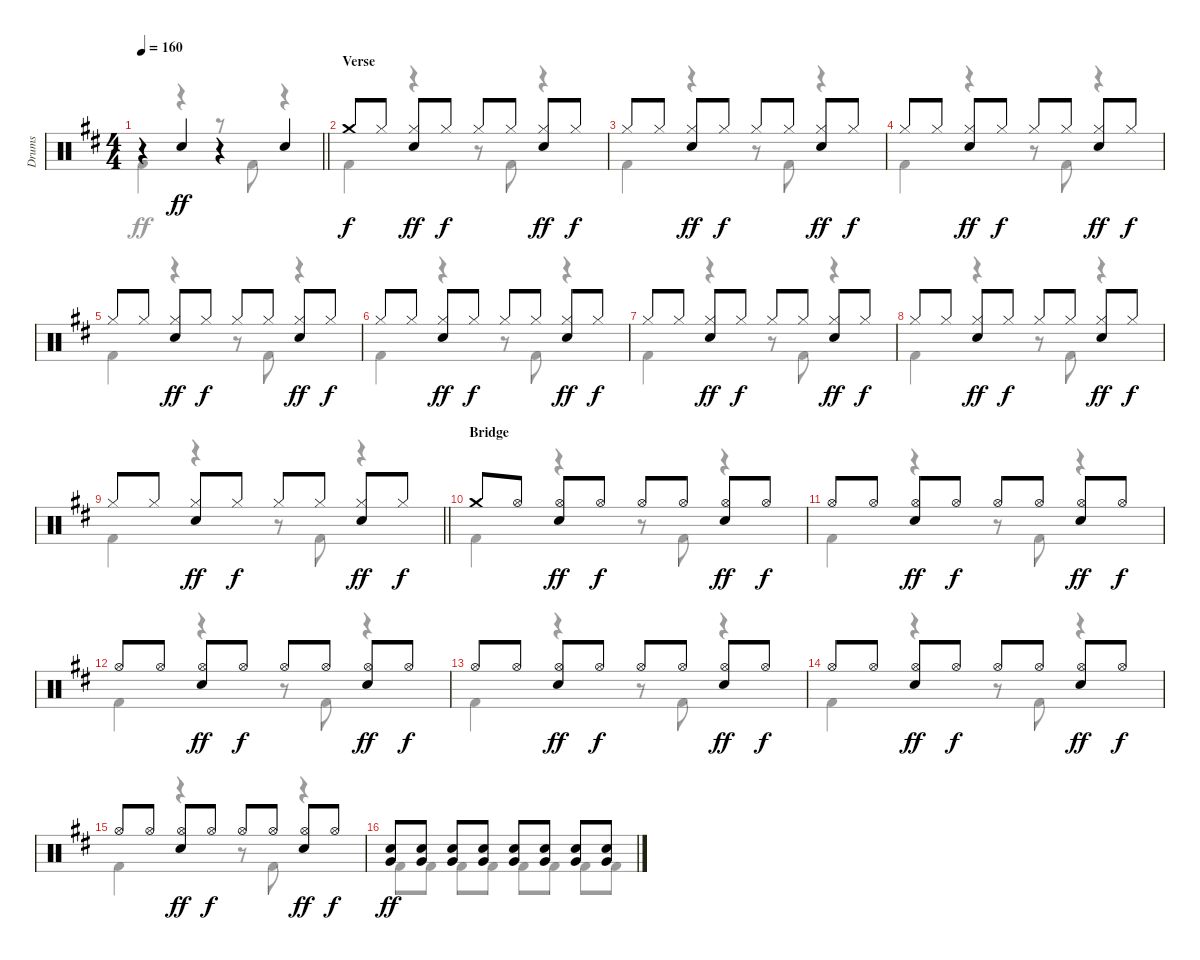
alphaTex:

\track ("Drums" "Drums") {instrument percussion}
\staff {score}
\articulation defaults
\voice
\ts (4 4)
\tempo 160
\clef neutral
\barLineRight lightlight
\ks bminor
r.4{dy ff} "Electric Snare (hit)".4 r.4 "Electric Snare (hit)".4 |
\section ("" "Verse")
"Crash medium (hit)".8{dy f} "Hi-Hat (closed)".8 ("Hi-Hat (closed)" "Electric Snare (hit)").8{dy ff} "Hi-Hat (closed)".8{dy f} "Hi-Hat (closed)".8 "Hi-Hat (closed)".8 ("Hi-Hat (closed)" "Electric Snare (hit)").8{dy ff} "Hi-Hat (closed)".8{dy f} |
"Hi-Hat (closed)".8 "Hi-Hat (closed)".8 ("Hi-Hat (closed)" "Electric Snare (hit)").8{dy ff} "Hi-Hat (closed)".8{dy f} "Hi-Hat (closed)".8 "Hi-Hat (closed)".8 ("Hi-Hat (closed)" "Electric Snare (hit)").8{dy ff} "Hi-Hat (closed)".8{dy f} |
"Hi-Hat (closed)".8 "Hi-Hat (closed)".8 ("Hi-Hat (closed)" "Electric Snare (hit)").8{dy ff} "Hi-Hat (closed)".8{dy f} "Hi-Hat (closed)".8 "Hi-Hat (closed)".8 ("Hi-Hat (closed)" "Electric Snare (hit)").8{dy ff} "Hi-Hat (closed)".8{dy f} |
"Hi-Hat (closed)".8 "Hi-Hat (closed)".8 ("Hi-Hat (closed)" "Electric Snare (hit)").8{dy ff} "Hi-Hat (closed)".8{dy f} "Hi-Hat (closed)".8 "Hi-Hat (closed)".8 ("Hi-Hat (closed)" "Electric Snare (hit)").8{dy ff} "Hi-Hat (closed)".8{dy f} |
"Hi-Hat (closed)".8 "Hi-Hat (closed)".8 ("Hi-Hat (closed)" "Electric Snare (hit)").8{dy ff} "Hi-Hat (closed)".8{dy f} "Hi-Hat (closed)".8 "Hi-Hat (closed)".8 ("Hi-Hat (closed)" "Electric Snare (hit)").8{dy ff} "Hi-Hat (closed)".8{dy f} |
"Hi-Hat (closed)".8 "Hi-Hat (closed)".8 ("Hi-Hat (closed)" "Electric Snare (hit)").8{dy ff} "Hi-Hat (closed)".8{dy f} "Hi-Hat (closed)".8 "Hi-Hat (closed)".8 ("Hi-Hat (closed)" "Electric Snare (hit)").8{dy ff} "Hi-Hat (closed)".8{dy f} |
"Hi-Hat (closed)".8 "Hi-Hat (closed)".8 ("Hi-Hat (closed)" "Electric Snare (hit)").8{dy ff} "Hi-Hat (closed)".8{dy f} "Hi-Hat (closed)".8 "Hi-Hat (closed)".8 ("Hi-Hat (closed)" "Electric Snare (hit)").8{dy ff} "Hi-Hat (closed)".8{dy f} |
\barLineRight lightlight "Hi-Hat (closed)".8 "Hi-Hat (closed)".8
("Hi-Hat (closed)" "Electric Snare (hit)").8{dy ff} "Hi-Hat (closed)".8{dy f} "Hi-Hat (closed)".8 "Hi-Hat (closed)".8 ("Hi-Hat (closed)" "Electric Snare (hit)").8{dy ff} "Hi-Hat (closed)".8{dy f} |
\section ("" "Bridge")
"Crash medium (hit)".8 "Hi-Hat (open)".8 ("Hi-Hat (open)" "Electric Snare (hit)").8{dy ff} "Hi-Hat (open)".8{dy f} "Hi-Hat (open)".8 "Hi-Hat (open)".8 ("Hi-Hat (open)" "Electric Snare (hit)").8{dy ff} "Hi-Hat (open)".8{dy f} |
"Hi-Hat (open)".8 "Hi-Hat (open)".8 ("Hi-Hat (open)" "Electric Snare (hit)").8{dy ff} "Hi-Hat (open)".8{dy f} "Hi-Hat (open)".8 "Hi-Hat (open)".8 ("Hi-Hat (open)" "Electric Snare (hit)").8{dy ff} "Hi-Hat (open)".8{dy f} |
"Hi-Hat (open)".8 "Hi-Hat (open)".8 ("Hi-Hat (open)" "Electric Snare (hit)").8{dy ff} "Hi-Hat (open)".8{dy f} "Hi-Hat (open)".8 "Hi-Hat (open)".8 ("Hi-Hat (open)" "Electric Snare (hit)").8{dy ff} "Hi-Hat (open)".8{dy f} |
"Hi-Hat (open)".8 "Hi-Hat (open)".8 ("Hi-Hat (open)" "Electric Snare (hit)").8{dy ff} "Hi-Hat (open)".8{dy f} "Hi-Hat (open)".8 "Hi-Hat (open)".8 ("Hi-Hat (open)" "Electric Snare (hit)").8{dy ff} "Hi-Hat (open)".8{dy f} |
"Hi-Hat (open)".8 "Hi-Hat (open)".8 ("Hi-Hat (open)" "Electric Snare (hit)").8{dy ff} "Hi-Hat (open)".8{dy f} "Hi-Hat (open)".8 "Hi-Hat (open)".8 ("Hi-Hat (open)" "Electric Snare (hit)").8{dy ff} "Hi-Hat (open)".8{dy f} |
"Hi-Hat (open)".8 "Hi-Hat (open)".8 ("Hi-Hat (open)" "Electric Snare (hit)").8{dy ff} "Hi-Hat (open)".8{dy f} "Hi-Hat (open)".8 "Hi-Hat (open)".8 ("Hi-Hat (open)" "Electric Snare (hit)").8{dy ff} "Hi-Hat (open)".8{dy f} |
("Very Low Tom (hit)" "Electric Snare (hit)").8{dy ff} ("Very Low Tom (hit)" "Electric Snare (hit)").8 ("Very Low Tom (hit)" "Electric Snare (hit)").8 ("Very Low Tom (hit)" "Electric Snare (hit)").8 ("Very Low Tom (hit)" "Electric Snare (hit)").8 ("Very Low Tom (hit)" "Electric Snare (hit)").8 ("Very Low Tom (hit)" "Electric Snare (hit)").8 ("Very Low Tom (hit)" "Electric Snare (hit)").8
\voice
\clef neutral
\ottava regular
\simile none
\barLineRight lightlight
\ks bminor "Kick (hit) 2".4{dy ff}
r.4 r.8 "Kick (hit) 2".8 r.4 |
"Kick (hit) 2".4 r.4 r.8 "Kick (hit) 2".8 r.4 |
"Kick (hit) 2".4 r.4 r.8 "Kick (hit) 2".8 r.4 |
"Kick (hit) 2".4 r.4 r.8 "Kick (hit) 2".8 r.4 |
"Kick (hit) 2".4 r.4 r.8 "Kick (hit) 2".8 r.4 |
"Kick (hit) 2".4 r.4 r.8 "Kick (hit) 2".8 r.4 |
"Kick (hit) 2".4 r.4 r.8 "Kick (hit) 2".8 r.4 |
"Kick (hit) 2".4 r.4 r.8 "Kick (hit) 2".8 r.4 |
\barLineRight lightlight "Kick (hit) 2".4
r.4 r.8 "Kick (hit) 2".8 r.4 |
"Kick (hit) 2".4 r.4 r.8 "Kick (hit) 2".8 r.4 |
"Kick (hit) 2".4 r.4 r.8 "Kick (hit) 2".8 r.4 |
"Kick (hit) 2".4 r.4 r.8 "Kick (hit) 2".8 r.4 |
"Kick (hit) 2".4 r.4 r.8 "Kick (hit) 2".8 r.4 |
"Kick (hit) 2".4 r.4 r.8 "Kick (hit) 2".8 r.4 |
"Kick (hit) 2".4 r.4 r.8 "Kick (hit) 2".8 r.4 |
"Kick (hit) 2".8 "Kick (hit) 2".8 "Kick (hit) 2".8 "Kick (hit) 2".8 "Kick (hit) 2".8 "Kick (hit) 2".8 "Kick (hit) 2".8 "Kick (hit) 2".8
